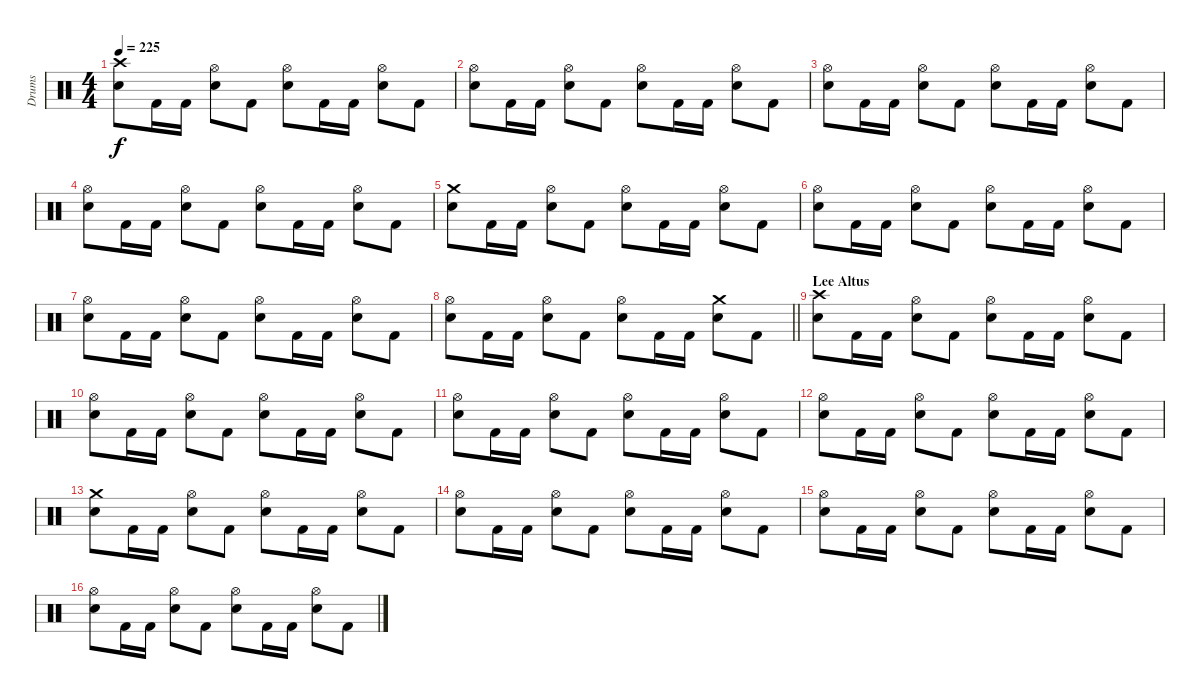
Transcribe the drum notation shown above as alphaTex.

\track ("Drums" "Drums") {instrument percussion}
\staff {score}
\articulation defaults
\ts (4 4)
\tempo 225
\clef neutral
\ks c
("Crash high (hit)" "Electric Snare (hit)").8{dy f} "Kick (hit) 2".16 "Kick (hit) 2".16 ("Hi-Hat (open)" "Electric Snare (hit)").8 "Kick (hit) 2".8 ("Hi-Hat (open)" "Electric Snare (hit)").8 "Kick (hit) 2".16 "Kick (hit) 2".16 ("Hi-Hat (open)" "Electric Snare (hit)").8 "Kick (hit) 2".8 |
("Hi-Hat (open)" "Electric Snare (hit)").8 "Kick (hit) 2".16 "Kick (hit) 2".16 ("Hi-Hat (open)" "Electric Snare (hit)").8 "Kick (hit) 2".8 ("Hi-Hat (open)" "Electric Snare (hit)").8 "Kick (hit) 2".16 "Kick (hit) 2".16 ("Hi-Hat (open)" "Electric Snare (hit)").8 "Kick (hit) 2".8 |
("Hi-Hat (open)" "Electric Snare (hit)").8 "Kick (hit) 2".16 "Kick (hit) 2".16 ("Hi-Hat (open)" "Electric Snare (hit)").8 "Kick (hit) 2".8 ("Hi-Hat (open)" "Electric Snare (hit)").8 "Kick (hit) 2".16 "Kick (hit) 2".16 ("Hi-Hat (open)" "Electric Snare (hit)").8 "Kick (hit) 2".8 |
("Hi-Hat (open)" "Electric Snare (hit)").8 "Kick (hit) 2".16 "Kick (hit) 2".16 ("Hi-Hat (open)" "Electric Snare (hit)").8 "Kick (hit) 2".8 ("Hi-Hat (open)" "Electric Snare (hit)").8 "Kick (hit) 2".16 "Kick (hit) 2".16 ("Hi-Hat (open)" "Electric Snare (hit)").8 "Kick (hit) 2".8 |
("Crash medium (hit)" "Electric Snare (hit)").8 "Kick (hit) 2".16 "Kick (hit) 2".16 ("Hi-Hat (open)" "Electric Snare (hit)").8 "Kick (hit) 2".8 ("Hi-Hat (open)" "Electric Snare (hit)").8 "Kick (hit) 2".16 "Kick (hit) 2".16 ("Hi-Hat (open)" "Electric Snare (hit)").8 "Kick (hit) 2".8 |
("Hi-Hat (open)" "Electric Snare (hit)").8 "Kick (hit) 2".16 "Kick (hit) 2".16 ("Hi-Hat (open)" "Electric Snare (hit)").8 "Kick (hit) 2".8 ("Hi-Hat (open)" "Electric Snare (hit)").8 "Kick (hit) 2".16 "Kick (hit) 2".16 ("Hi-Hat (open)" "Electric Snare (hit)").8 "Kick (hit) 2".8 |
("Hi-Hat (open)" "Electric Snare (hit)").8 "Kick (hit) 2".16 "Kick (hit) 2".16 ("Hi-Hat (open)" "Electric Snare (hit)").8 "Kick (hit) 2".8 ("Hi-Hat (open)" "Electric Snare (hit)").8 "Kick (hit) 2".16 "Kick (hit) 2".16 ("Hi-Hat (open)" "Electric Snare (hit)").8 "Kick (hit) 2".8 |
\barLineRight lightlight
("Hi-Hat (open)" "Electric Snare (hit)").8 "Kick (hit) 2".16 "Kick (hit) 2".16 ("Hi-Hat (open)" "Electric Snare (hit)").8 "Kick (hit) 2".8 ("Hi-Hat (open)" "Electric Snare (hit)").8 "Kick (hit) 2".16 "Kick (hit) 2".16 ("Crash medium (hit)" "Electric Snare (hit)").8 "Kick (hit) 2".8 |
\section ("" "Lee Altus")
("Crash high (hit)" "Electric Snare (hit)").8 "Kick (hit) 2".16 "Kick (hit) 2".16 ("Hi-Hat (open)" "Electric Snare (hit)").8 "Kick (hit) 2".8 ("Hi-Hat (open)" "Electric Snare (hit)").8 "Kick (hit) 2".16 "Kick (hit) 2".16 ("Hi-Hat (open)" "Electric Snare (hit)").8 "Kick (hit) 2".8 |
("Hi-Hat (open)" "Electric Snare (hit)").8 "Kick (hit) 2".16 "Kick (hit) 2".16 ("Hi-Hat (open)" "Electric Snare (hit)").8 "Kick (hit) 2".8 ("Hi-Hat (open)" "Electric Snare (hit)").8 "Kick (hit) 2".16 "Kick (hit) 2".16 ("Hi-Hat (open)" "Electric Snare (hit)").8 "Kick (hit) 2".8 |
("Hi-Hat (open)" "Electric Snare (hit)").8 "Kick (hit) 2".16 "Kick (hit) 2".16 ("Hi-Hat (open)" "Electric Snare (hit)").8 "Kick (hit) 2".8 ("Hi-Hat (open)" "Electric Snare (hit)").8 "Kick (hit) 2".16 "Kick (hit) 2".16 ("Hi-Hat (open)" "Electric Snare (hit)").8 "Kick (hit) 2".8 |
("Hi-Hat (open)" "Electric Snare (hit)").8 "Kick (hit) 2".16 "Kick (hit) 2".16 ("Hi-Hat (open)" "Electric Snare (hit)").8 "Kick (hit) 2".8 ("Hi-Hat (open)" "Electric Snare (hit)").8 "Kick (hit) 2".16 "Kick (hit) 2".16 ("Hi-Hat (open)" "Electric Snare (hit)").8 "Kick (hit) 2".8 |
("Crash medium (hit)" "Electric Snare (hit)").8 "Kick (hit) 2".16 "Kick (hit) 2".16 ("Hi-Hat (open)" "Electric Snare (hit)").8 "Kick (hit) 2".8 ("Hi-Hat (open)" "Electric Snare (hit)").8 "Kick (hit) 2".16 "Kick (hit) 2".16 ("Hi-Hat (open)" "Electric Snare (hit)").8 "Kick (hit) 2".8 |
("Hi-Hat (open)" "Electric Snare (hit)").8 "Kick (hit) 2".16 "Kick (hit) 2".16 ("Hi-Hat (open)" "Electric Snare (hit)").8 "Kick (hit) 2".8 ("Hi-Hat (open)" "Electric Snare (hit)").8 "Kick (hit) 2".16 "Kick (hit) 2".16 ("Hi-Hat (open)" "Electric Snare (hit)").8 "Kick (hit) 2".8 |
("Hi-Hat (open)" "Electric Snare (hit)").8 "Kick (hit) 2".16 "Kick (hit) 2".16 ("Hi-Hat (open)" "Electric Snare (hit)").8 "Kick (hit) 2".8 ("Hi-Hat (open)" "Electric Snare (hit)").8 "Kick (hit) 2".16 "Kick (hit) 2".16 ("Hi-Hat (open)" "Electric Snare (hit)").8 "Kick (hit) 2".8 |
("Hi-Hat (open)" "Electric Snare (hit)").8 "Kick (hit) 2".16 "Kick (hit) 2".16 ("Hi-Hat (open)" "Electric Snare (hit)").8 "Kick (hit) 2".8 ("Hi-Hat (open)" "Electric Snare (hit)").8 "Kick (hit) 2".16 "Kick (hit) 2".16 ("Hi-Hat (open)" "Electric Snare (hit)").8 "Kick (hit) 2".8
